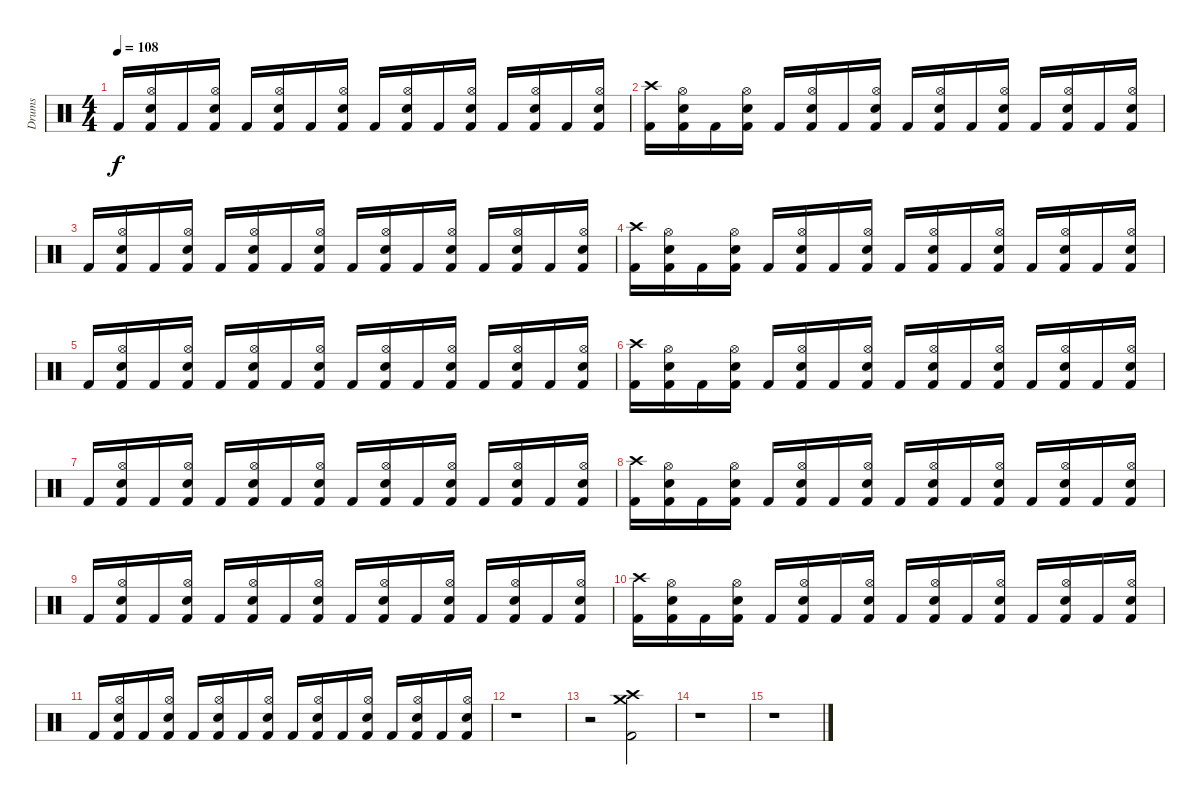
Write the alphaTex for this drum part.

\track ("Drums" "Drums") {instrument percussion}
\staff {score}
\articulation defaults
\ts (4 4)
\tempo 108
\clef neutral
\ks c "Kick (hit) 2".16{dy f}
("Hi-Hat (open)" "Snare (hit) 2" "Kick (hit) 2").16 "Kick (hit) 2".16 ("Hi-Hat (open)" "Snare (hit) 2" "Kick (hit) 2").16 "Kick (hit) 2".16 ("Hi-Hat (open)" "Snare (hit) 2" "Kick (hit) 2").16 "Kick (hit) 2".16 ("Hi-Hat (open)" "Snare (hit) 2" "Kick (hit) 2").16 "Kick (hit) 2".16 ("Hi-Hat (open)" "Snare (hit) 2" "Kick (hit) 2").16 "Kick (hit) 2".16 ("Hi-Hat (open)" "Snare (hit) 2" "Kick (hit) 2").16 "Kick (hit) 2".16 ("Hi-Hat (open)" "Snare (hit) 2" "Kick (hit) 2").16 "Kick (hit) 2".16 ("Hi-Hat (open)" "Snare (hit) 2" "Kick (hit) 2").16 |
("Crash high (hit)" "Kick (hit) 2").16 ("Hi-Hat (open)" "Snare (hit) 2" "Kick (hit) 2").16 "Kick (hit) 2".16 ("Hi-Hat (open)" "Snare (hit) 2" "Kick (hit) 2").16 "Kick (hit) 2".16 ("Hi-Hat (open)" "Snare (hit) 2" "Kick (hit) 2").16 "Kick (hit) 2".16 ("Hi-Hat (open)" "Snare (hit) 2" "Kick (hit) 2").16 "Kick (hit) 2".16 ("Hi-Hat (open)" "Snare (hit) 2" "Kick (hit) 2").16 "Kick (hit) 2".16 ("Hi-Hat (open)" "Snare (hit) 2" "Kick (hit) 2").16 "Kick (hit) 2".16 ("Hi-Hat (open)" "Snare (hit) 2" "Kick (hit) 2").16 "Kick (hit) 2".16 ("Hi-Hat (open)" "Snare (hit) 2" "Kick (hit) 2").16 |
"Kick (hit) 2".16 ("Hi-Hat (open)" "Snare (hit) 2" "Kick (hit) 2").16 "Kick (hit) 2".16 ("Hi-Hat (open)" "Snare (hit) 2" "Kick (hit) 2").16 "Kick (hit) 2".16 ("Hi-Hat (open)" "Snare (hit) 2" "Kick (hit) 2").16 "Kick (hit) 2".16 ("Hi-Hat (open)" "Snare (hit) 2" "Kick (hit) 2").16 "Kick (hit) 2".16 ("Hi-Hat (open)" "Snare (hit) 2" "Kick (hit) 2").16 "Kick (hit) 2".16 ("Hi-Hat (open)" "Snare (hit) 2" "Kick (hit) 2").16 "Kick (hit) 2".16 ("Hi-Hat (open)" "Snare (hit) 2" "Kick (hit) 2").16 "Kick (hit) 2".16 ("Hi-Hat (open)" "Snare (hit) 2" "Kick (hit) 2").16 |
("Crash high (hit)" "Kick (hit) 2").16 ("Hi-Hat (open)" "Snare (hit) 2" "Kick (hit) 2").16 "Kick (hit) 2".16 ("Hi-Hat (open)" "Snare (hit) 2" "Kick (hit) 2").16 "Kick (hit) 2".16 ("Hi-Hat (open)" "Snare (hit) 2" "Kick (hit) 2").16 "Kick (hit) 2".16 ("Hi-Hat (open)" "Snare (hit) 2" "Kick (hit) 2").16 "Kick (hit) 2".16 ("Hi-Hat (open)" "Snare (hit) 2" "Kick (hit) 2").16 "Kick (hit) 2".16 ("Hi-Hat (open)" "Snare (hit) 2" "Kick (hit) 2").16 "Kick (hit) 2".16 ("Hi-Hat (open)" "Snare (hit) 2" "Kick (hit) 2").16 "Kick (hit) 2".16 ("Hi-Hat (open)" "Snare (hit) 2" "Kick (hit) 2").16 |
"Kick (hit) 2".16 ("Hi-Hat (open)" "Snare (hit) 2" "Kick (hit) 2").16 "Kick (hit) 2".16 ("Hi-Hat (open)" "Snare (hit) 2" "Kick (hit) 2").16 "Kick (hit) 2".16 ("Hi-Hat (open)" "Snare (hit) 2" "Kick (hit) 2").16 "Kick (hit) 2".16 ("Hi-Hat (open)" "Snare (hit) 2" "Kick (hit) 2").16 "Kick (hit) 2".16 ("Hi-Hat (open)" "Snare (hit) 2" "Kick (hit) 2").16 "Kick (hit) 2".16 ("Hi-Hat (open)" "Snare (hit) 2" "Kick (hit) 2").16 "Kick (hit) 2".16 ("Hi-Hat (open)" "Snare (hit) 2" "Kick (hit) 2").16 "Kick (hit) 2".16 ("Hi-Hat (open)" "Snare (hit) 2" "Kick (hit) 2").16 |
("Crash high (hit)" "Kick (hit) 2").16 ("Hi-Hat (open)" "Snare (hit) 2" "Kick (hit) 2").16 "Kick (hit) 2".16 ("Hi-Hat (open)" "Snare (hit) 2" "Kick (hit) 2").16 "Kick (hit) 2".16 ("Hi-Hat (open)" "Snare (hit) 2" "Kick (hit) 2").16 "Kick (hit) 2".16 ("Hi-Hat (open)" "Snare (hit) 2" "Kick (hit) 2").16 "Kick (hit) 2".16 ("Hi-Hat (open)" "Snare (hit) 2" "Kick (hit) 2").16 "Kick (hit) 2".16 ("Hi-Hat (open)" "Snare (hit) 2" "Kick (hit) 2").16 "Kick (hit) 2".16 ("Hi-Hat (open)" "Snare (hit) 2" "Kick (hit) 2").16 "Kick (hit) 2".16 ("Hi-Hat (open)" "Snare (hit) 2" "Kick (hit) 2").16 |
"Kick (hit) 2".16 ("Hi-Hat (open)" "Snare (hit) 2" "Kick (hit) 2").16 "Kick (hit) 2".16 ("Hi-Hat (open)" "Snare (hit) 2" "Kick (hit) 2").16 "Kick (hit) 2".16 ("Hi-Hat (open)" "Snare (hit) 2" "Kick (hit) 2").16 "Kick (hit) 2".16 ("Hi-Hat (open)" "Snare (hit) 2" "Kick (hit) 2").16 "Kick (hit) 2".16 ("Hi-Hat (open)" "Snare (hit) 2" "Kick (hit) 2").16 "Kick (hit) 2".16 ("Hi-Hat (open)" "Snare (hit) 2" "Kick (hit) 2").16 "Kick (hit) 2".16 ("Hi-Hat (open)" "Snare (hit) 2" "Kick (hit) 2").16 "Kick (hit) 2".16 ("Hi-Hat (open)" "Snare (hit) 2" "Kick (hit) 2").16 |
("Crash high (hit)" "Kick (hit) 2").16 ("Hi-Hat (open)" "Snare (hit) 2" "Kick (hit) 2").16 "Kick (hit) 2".16 ("Hi-Hat (open)" "Snare (hit) 2" "Kick (hit) 2").16 "Kick (hit) 2".16 ("Hi-Hat (open)" "Snare (hit) 2" "Kick (hit) 2").16 "Kick (hit) 2".16 ("Hi-Hat (open)" "Snare (hit) 2" "Kick (hit) 2").16 "Kick (hit) 2".16 ("Hi-Hat (open)" "Snare (hit) 2" "Kick (hit) 2").16 "Kick (hit) 2".16 ("Hi-Hat (open)" "Snare (hit) 2" "Kick (hit) 2").16 "Kick (hit) 2".16 ("Hi-Hat (open)" "Snare (hit) 2" "Kick (hit) 2").16 "Kick (hit) 2".16 ("Hi-Hat (open)" "Snare (hit) 2" "Kick (hit) 2").16 |
"Kick (hit) 2".16 ("Hi-Hat (open)" "Snare (hit) 2" "Kick (hit) 2").16 "Kick (hit) 2".16 ("Hi-Hat (open)" "Snare (hit) 2" "Kick (hit) 2").16 "Kick (hit) 2".16 ("Hi-Hat (open)" "Snare (hit) 2" "Kick (hit) 2").16 "Kick (hit) 2".16 ("Hi-Hat (open)" "Snare (hit) 2" "Kick (hit) 2").16 "Kick (hit) 2".16 ("Hi-Hat (open)" "Snare (hit) 2" "Kick (hit) 2").16 "Kick (hit) 2".16 ("Hi-Hat (open)" "Snare (hit) 2" "Kick (hit) 2").16 "Kick (hit) 2".16 ("Hi-Hat (open)" "Snare (hit) 2" "Kick (hit) 2").16 "Kick (hit) 2".16 ("Hi-Hat (open)" "Snare (hit) 2" "Kick (hit) 2").16 |
("Crash high (hit)" "Kick (hit) 2").16 ("Hi-Hat (open)" "Snare (hit) 2" "Kick (hit) 2").16 "Kick (hit) 2".16 ("Hi-Hat (open)" "Snare (hit) 2" "Kick (hit) 2").16 "Kick (hit) 2".16 ("Hi-Hat (open)" "Snare (hit) 2" "Kick (hit) 2").16 "Kick (hit) 2".16 ("Hi-Hat (open)" "Snare (hit) 2" "Kick (hit) 2").16 "Kick (hit) 2".16 ("Hi-Hat (open)" "Snare (hit) 2" "Kick (hit) 2").16 "Kick (hit) 2".16 ("Hi-Hat (open)" "Snare (hit) 2" "Kick (hit) 2").16 "Kick (hit) 2".16 ("Hi-Hat (open)" "Snare (hit) 2" "Kick (hit) 2").16 "Kick (hit) 2".16 ("Hi-Hat (open)" "Snare (hit) 2" "Kick (hit) 2").16 |
"Kick (hit) 2".16 ("Hi-Hat (open)" "Snare (hit) 2" "Kick (hit) 2").16 "Kick (hit) 2".16 ("Hi-Hat (open)" "Snare (hit) 2" "Kick (hit) 2").16 "Kick (hit) 2".16 ("Hi-Hat (open)" "Snare (hit) 2" "Kick (hit) 2").16 "Kick (hit) 2".16 ("Hi-Hat (open)" "Snare (hit) 2" "Kick (hit) 2").16 "Kick (hit) 2".16 ("Hi-Hat (open)" "Snare (hit) 2" "Kick (hit) 2").16 "Kick (hit) 2".16 ("Hi-Hat (open)" "Snare (hit) 2" "Kick (hit) 2").16 "Kick (hit) 2".16 ("Hi-Hat (open)" "Snare (hit) 2" "Kick (hit) 2").16 "Kick (hit) 2".16 ("Hi-Hat (open)" "Snare (hit) 2" "Kick (hit) 2").16 |
r.1 |
r.2 ("Crash medium (hit)" "Crash high (hit)" "Kick (hit) 2").2 |
r.1 |
r.1
